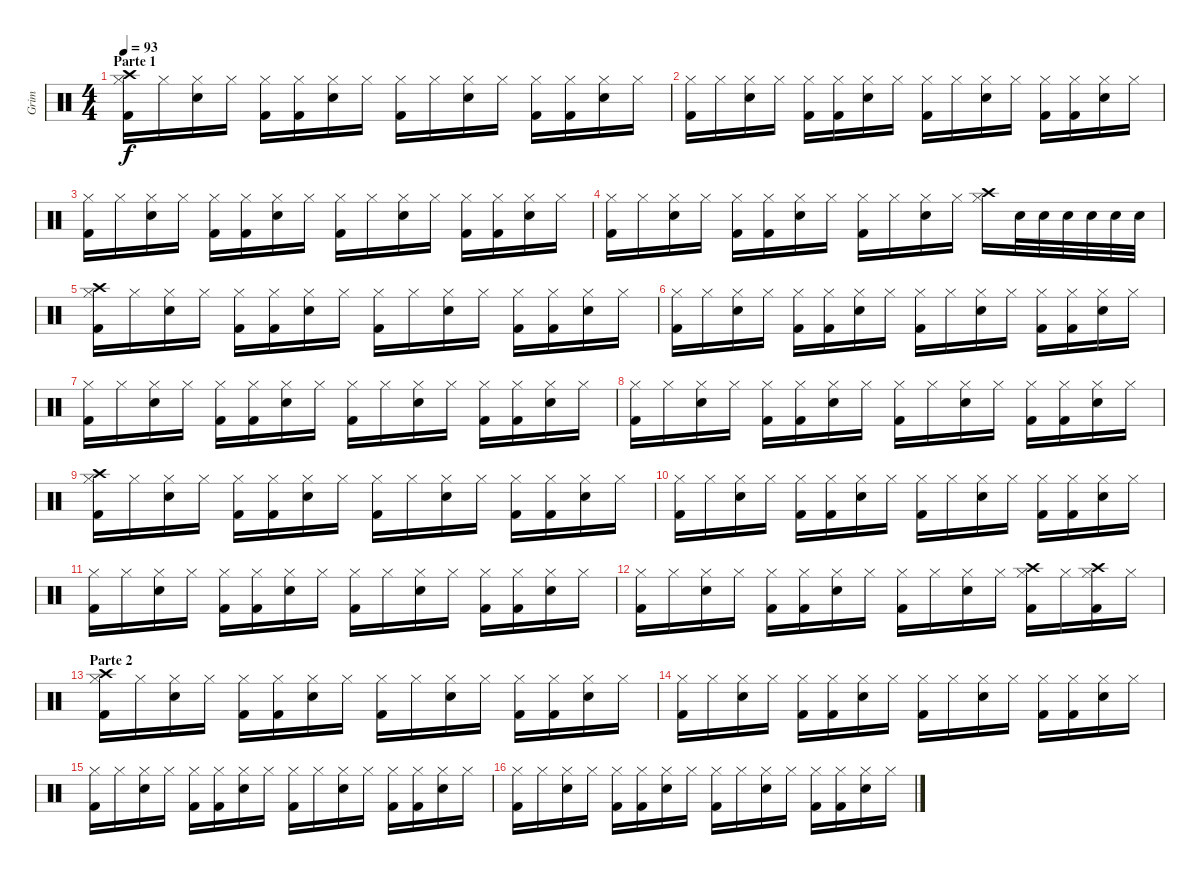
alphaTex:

\track ("Grim" "Grim") {instrument percussion}
\staff {score}
\articulation defaults
\ts (4 4)
\section ("" "Parte 1")
\tempo 93
\clef neutral
\ks c
("Crash high (hit)" "Hi-Hat (closed)" "Kick (hit) 2").16{dy f} "Hi-Hat (closed)".16 ("Snare (hit) 2" "Hi-Hat (closed)").16 "Hi-Hat (closed)".16 ("Hi-Hat (closed)" "Kick (hit) 2").16 ("Hi-Hat (closed)" "Kick (hit) 2").16 ("Snare (hit) 2" "Hi-Hat (closed)").16 "Hi-Hat (closed)".16 ("Hi-Hat (closed)" "Kick (hit) 2").16 "Hi-Hat (closed)".16 ("Snare (hit) 2" "Hi-Hat (closed)").16 "Hi-Hat (closed)".16 ("Hi-Hat (closed)" "Kick (hit) 2").16 ("Hi-Hat (closed)" "Kick (hit) 2").16 ("Snare (hit) 2" "Hi-Hat (closed)").16 "Hi-Hat (closed)".16 |
("Hi-Hat (closed)" "Kick (hit) 2").16 "Hi-Hat (closed)".16 ("Snare (hit) 2" "Hi-Hat (closed)").16 "Hi-Hat (closed)".16 ("Hi-Hat (closed)" "Kick (hit) 2").16 ("Hi-Hat (closed)" "Kick (hit) 2").16 ("Snare (hit) 2" "Hi-Hat (closed)").16 "Hi-Hat (closed)".16 ("Hi-Hat (closed)" "Kick (hit) 2").16 "Hi-Hat (closed)".16 ("Snare (hit) 2" "Hi-Hat (closed)").16 "Hi-Hat (closed)".16 ("Hi-Hat (closed)" "Kick (hit) 2").16 ("Hi-Hat (closed)" "Kick (hit) 2").16 ("Snare (hit) 2" "Hi-Hat (closed)").16 "Hi-Hat (closed)".16 |
("Hi-Hat (closed)" "Kick (hit) 2").16 "Hi-Hat (closed)".16 ("Snare (hit) 2" "Hi-Hat (closed)").16 "Hi-Hat (closed)".16 ("Hi-Hat (closed)" "Kick (hit) 2").16 ("Hi-Hat (closed)" "Kick (hit) 2").16 ("Snare (hit) 2" "Hi-Hat (closed)").16 "Hi-Hat (closed)".16 ("Hi-Hat (closed)" "Kick (hit) 2").16 "Hi-Hat (closed)".16 ("Snare (hit) 2" "Hi-Hat (closed)").16 "Hi-Hat (closed)".16 ("Hi-Hat (closed)" "Kick (hit) 2").16 ("Hi-Hat (closed)" "Kick (hit) 2").16 ("Snare (hit) 2" "Hi-Hat (closed)").16 "Hi-Hat (closed)".16 |
("Hi-Hat (closed)" "Kick (hit) 2").16 "Hi-Hat (closed)".16 ("Snare (hit) 2" "Hi-Hat (closed)").16 "Hi-Hat (closed)".16 ("Hi-Hat (closed)" "Kick (hit) 2").16 ("Hi-Hat (closed)" "Kick (hit) 2").16 ("Snare (hit) 2" "Hi-Hat (closed)").16 "Hi-Hat (closed)".16 ("Hi-Hat (closed)" "Kick (hit) 2").16 "Hi-Hat (closed)".16 ("Snare (hit) 2" "Hi-Hat (closed)").16 "Hi-Hat (closed)".16 ("Crash high (hit)" "Hi-Hat (closed)").16 "Snare (hit) 2".32 "Snare (hit) 2".32 "Snare (hit) 2".32 "Snare (hit) 2".32 "Snare (hit) 2".32 "Snare (hit) 2".32 |
("Crash high (hit)" "Hi-Hat (closed)" "Kick (hit) 2").16 "Hi-Hat (closed)".16 ("Snare (hit) 2" "Hi-Hat (closed)").16 "Hi-Hat (closed)".16 ("Hi-Hat (closed)" "Kick (hit) 2").16 ("Hi-Hat (closed)" "Kick (hit) 2").16 ("Snare (hit) 2" "Hi-Hat (closed)").16 "Hi-Hat (closed)".16 ("Hi-Hat (closed)" "Kick (hit) 2").16 "Hi-Hat (closed)".16 ("Snare (hit) 2" "Hi-Hat (closed)").16 "Hi-Hat (closed)".16 ("Hi-Hat (closed)" "Kick (hit) 2").16 ("Hi-Hat (closed)" "Kick (hit) 2").16 ("Snare (hit) 2" "Hi-Hat (closed)").16 "Hi-Hat (closed)".16 |
("Hi-Hat (closed)" "Kick (hit) 2").16 "Hi-Hat (closed)".16 ("Snare (hit) 2" "Hi-Hat (closed)").16 "Hi-Hat (closed)".16 ("Hi-Hat (closed)" "Kick (hit) 2").16 ("Hi-Hat (closed)" "Kick (hit) 2").16 ("Snare (hit) 2" "Hi-Hat (closed)").16 "Hi-Hat (closed)".16 ("Hi-Hat (closed)" "Kick (hit) 2").16 "Hi-Hat (closed)".16 ("Snare (hit) 2" "Hi-Hat (closed)").16 "Hi-Hat (closed)".16 ("Hi-Hat (closed)" "Kick (hit) 2").16 ("Hi-Hat (closed)" "Kick (hit) 2").16 ("Snare (hit) 2" "Hi-Hat (closed)").16 "Hi-Hat (closed)".16 |
("Hi-Hat (closed)" "Kick (hit) 2").16 "Hi-Hat (closed)".16 ("Snare (hit) 2" "Hi-Hat (closed)").16 "Hi-Hat (closed)".16 ("Hi-Hat (closed)" "Kick (hit) 2").16 ("Hi-Hat (closed)" "Kick (hit) 2").16 ("Snare (hit) 2" "Hi-Hat (closed)").16 "Hi-Hat (closed)".16 ("Hi-Hat (closed)" "Kick (hit) 2").16 "Hi-Hat (closed)".16 ("Snare (hit) 2" "Hi-Hat (closed)").16 "Hi-Hat (closed)".16 ("Hi-Hat (closed)" "Kick (hit) 2").16 ("Hi-Hat (closed)" "Kick (hit) 2").16 ("Snare (hit) 2" "Hi-Hat (closed)").16 "Hi-Hat (closed)".16 |
("Hi-Hat (closed)" "Kick (hit) 2").16 "Hi-Hat (closed)".16 ("Snare (hit) 2" "Hi-Hat (closed)").16 "Hi-Hat (closed)".16 ("Hi-Hat (closed)" "Kick (hit) 2").16 ("Hi-Hat (closed)" "Kick (hit) 2").16 ("Snare (hit) 2" "Hi-Hat (closed)").16 "Hi-Hat (closed)".16 ("Hi-Hat (closed)" "Kick (hit) 2").16 "Hi-Hat (closed)".16 ("Snare (hit) 2" "Hi-Hat (closed)").16 "Hi-Hat (closed)".16 ("Hi-Hat (closed)" "Kick (hit) 2").16 ("Hi-Hat (closed)" "Kick (hit) 2").16 ("Snare (hit) 2" "Hi-Hat (closed)").16 "Hi-Hat (closed)".16 |
("Crash high (hit)" "Hi-Hat (closed)" "Kick (hit) 2").16 "Hi-Hat (closed)".16 ("Snare (hit) 2" "Hi-Hat (closed)").16 "Hi-Hat (closed)".16 ("Hi-Hat (closed)" "Kick (hit) 2").16 ("Hi-Hat (closed)" "Kick (hit) 2").16 ("Snare (hit) 2" "Hi-Hat (closed)").16 "Hi-Hat (closed)".16 ("Hi-Hat (closed)" "Kick (hit) 2").16 "Hi-Hat (closed)".16 ("Snare (hit) 2" "Hi-Hat (closed)").16 "Hi-Hat (closed)".16 ("Hi-Hat (closed)" "Kick (hit) 2").16 ("Hi-Hat (closed)" "Kick (hit) 2").16 ("Snare (hit) 2" "Hi-Hat (closed)").16 "Hi-Hat (closed)".16 |
("Hi-Hat (closed)" "Kick (hit) 2").16 "Hi-Hat (closed)".16 ("Snare (hit) 2" "Hi-Hat (closed)").16 "Hi-Hat (closed)".16 ("Hi-Hat (closed)" "Kick (hit) 2").16 ("Hi-Hat (closed)" "Kick (hit) 2").16 ("Snare (hit) 2" "Hi-Hat (closed)").16 "Hi-Hat (closed)".16 ("Hi-Hat (closed)" "Kick (hit) 2").16 "Hi-Hat (closed)".16 ("Snare (hit) 2" "Hi-Hat (closed)").16 "Hi-Hat (closed)".16 ("Hi-Hat (closed)" "Kick (hit) 2").16 ("Hi-Hat (closed)" "Kick (hit) 2").16 ("Snare (hit) 2" "Hi-Hat (closed)").16 "Hi-Hat (closed)".16 |
("Hi-Hat (closed)" "Kick (hit) 2").16 "Hi-Hat (closed)".16 ("Snare (hit) 2" "Hi-Hat (closed)").16 "Hi-Hat (closed)".16 ("Hi-Hat (closed)" "Kick (hit) 2").16 ("Hi-Hat (closed)" "Kick (hit) 2").16 ("Snare (hit) 2" "Hi-Hat (closed)").16 "Hi-Hat (closed)".16 ("Hi-Hat (closed)" "Kick (hit) 2").16 "Hi-Hat (closed)".16 ("Snare (hit) 2" "Hi-Hat (closed)").16 "Hi-Hat (closed)".16 ("Hi-Hat (closed)" "Kick (hit) 2").16 ("Hi-Hat (closed)" "Kick (hit) 2").16 ("Snare (hit) 2" "Hi-Hat (closed)").16 "Hi-Hat (closed)".16 |
("Hi-Hat (closed)" "Kick (hit) 2").16 "Hi-Hat (closed)".16 ("Snare (hit) 2" "Hi-Hat (closed)").16 "Hi-Hat (closed)".16 ("Hi-Hat (closed)" "Kick (hit) 2").16 ("Hi-Hat (closed)" "Kick (hit) 2").16 ("Snare (hit) 2" "Hi-Hat (closed)").16 "Hi-Hat (closed)".16 ("Hi-Hat (closed)" "Kick (hit) 2").16 "Hi-Hat (closed)".16 ("Snare (hit) 2" "Hi-Hat (closed)").16 "Hi-Hat (closed)".16 ("Crash high (hit)" "Hi-Hat (closed)" "Kick (hit) 2").16 "Hi-Hat (closed)".16 ("Crash high (hit)" "Hi-Hat (closed)" "Kick (hit) 2").16 "Hi-Hat (closed)".16 |
\section ("" "Parte 2")
("Crash high (hit)" "Hi-Hat (closed)" "Kick (hit) 2").16 "Hi-Hat (closed)".16 ("Snare (hit) 2" "Hi-Hat (closed)").16 "Hi-Hat (closed)".16 ("Hi-Hat (closed)" "Kick (hit) 2").16 ("Hi-Hat (closed)" "Kick (hit) 2").16 ("Snare (hit) 2" "Hi-Hat (closed)").16 "Hi-Hat (closed)".16 ("Hi-Hat (closed)" "Kick (hit) 2").16 "Hi-Hat (closed)".16 ("Snare (hit) 2" "Hi-Hat (closed)").16 "Hi-Hat (closed)".16 ("Hi-Hat (closed)" "Kick (hit) 2").16 ("Hi-Hat (closed)" "Kick (hit) 2").16 ("Snare (hit) 2" "Hi-Hat (closed)").16 "Hi-Hat (closed)".16 |
("Hi-Hat (closed)" "Kick (hit) 2").16 "Hi-Hat (closed)".16 ("Snare (hit) 2" "Hi-Hat (closed)").16 "Hi-Hat (closed)".16 ("Hi-Hat (closed)" "Kick (hit) 2").16 ("Hi-Hat (closed)" "Kick (hit) 2").16 ("Snare (hit) 2" "Hi-Hat (closed)").16 "Hi-Hat (closed)".16 ("Hi-Hat (closed)" "Kick (hit) 2").16 "Hi-Hat (closed)".16 ("Snare (hit) 2" "Hi-Hat (closed)").16 "Hi-Hat (closed)".16 ("Hi-Hat (closed)" "Kick (hit) 2").16 ("Hi-Hat (closed)" "Kick (hit) 2").16 ("Snare (hit) 2" "Hi-Hat (closed)").16 "Hi-Hat (closed)".16 |
("Hi-Hat (closed)" "Kick (hit) 2").16 "Hi-Hat (closed)".16 ("Snare (hit) 2" "Hi-Hat (closed)").16 "Hi-Hat (closed)".16 ("Hi-Hat (closed)" "Kick (hit) 2").16 ("Hi-Hat (closed)" "Kick (hit) 2").16 ("Snare (hit) 2" "Hi-Hat (closed)").16 "Hi-Hat (closed)".16 ("Hi-Hat (closed)" "Kick (hit) 2").16 "Hi-Hat (closed)".16 ("Snare (hit) 2" "Hi-Hat (closed)").16 "Hi-Hat (closed)".16 ("Hi-Hat (closed)" "Kick (hit) 2").16 ("Hi-Hat (closed)" "Kick (hit) 2").16 ("Snare (hit) 2" "Hi-Hat (closed)").16 "Hi-Hat (closed)".16 |
("Hi-Hat (closed)" "Kick (hit) 2").16 "Hi-Hat (closed)".16 ("Snare (hit) 2" "Hi-Hat (closed)").16 "Hi-Hat (closed)".16 ("Hi-Hat (closed)" "Kick (hit) 2").16 ("Hi-Hat (closed)" "Kick (hit) 2").16 ("Snare (hit) 2" "Hi-Hat (closed)").16 "Hi-Hat (closed)".16 ("Hi-Hat (closed)" "Kick (hit) 2").16 "Hi-Hat (closed)".16 ("Snare (hit) 2" "Hi-Hat (closed)").16 "Hi-Hat (closed)".16 ("Hi-Hat (closed)" "Kick (hit) 2").16 ("Hi-Hat (closed)" "Kick (hit) 2").16 ("Snare (hit) 2" "Hi-Hat (closed)").16 "Hi-Hat (closed)".16
